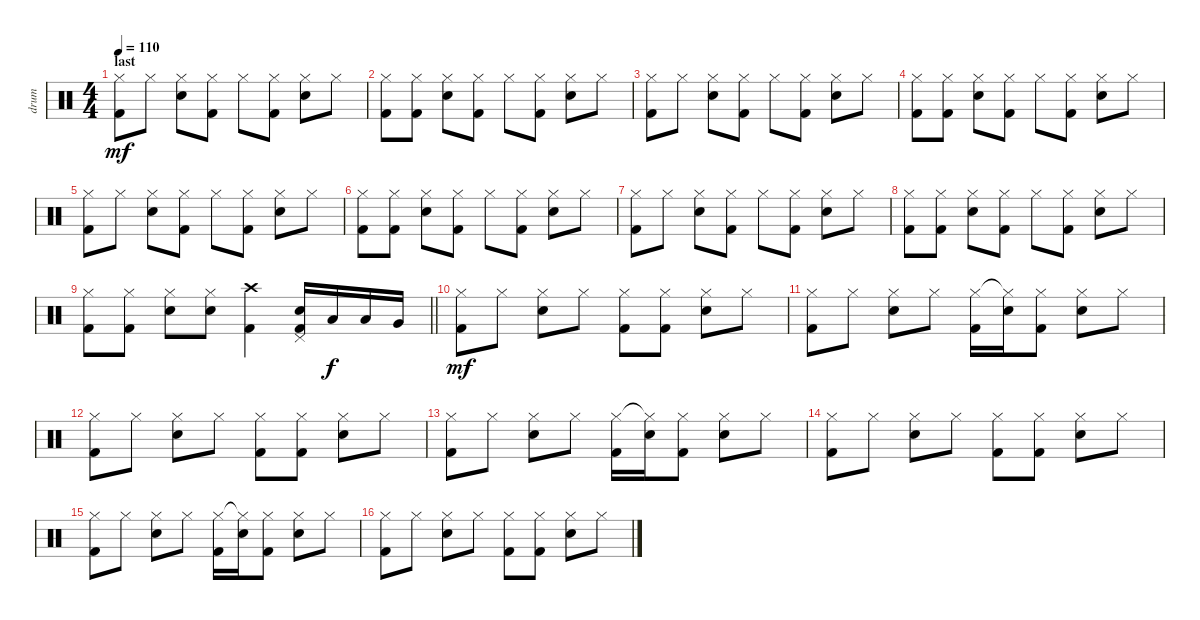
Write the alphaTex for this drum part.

\track ("drum" "drum") {instrument percussion}
\staff
\articulation defaults
\ts (4 4)
\section ("" "last")
\tempo 110
\clef neutral
\ks c
("Hi-Hat (closed)" "Kick (hit) 2").8{dy mf} "Hi-Hat (closed)".8 ("Hi-Hat (closed)" "Electric Snare (hit)").8 ("Hi-Hat (closed)" "Kick (hit) 2").8 "Hi-Hat (closed)".8 ("Hi-Hat (closed)" "Kick (hit) 2").8 ("Hi-Hat (closed)" "Electric Snare (hit)").8 "Hi-Hat (closed)".8 |
("Hi-Hat (closed)" "Kick (hit) 2").8 ("Hi-Hat (closed)" "Kick (hit) 2").8 ("Hi-Hat (closed)" "Electric Snare (hit)").8 ("Hi-Hat (closed)" "Kick (hit) 2").8 "Hi-Hat (closed)".8 ("Hi-Hat (closed)" "Kick (hit) 2").8 ("Hi-Hat (closed)" "Electric Snare (hit)").8 "Hi-Hat (closed)".8 |
("Hi-Hat (closed)" "Kick (hit) 2").8 "Hi-Hat (closed)".8 ("Hi-Hat (closed)" "Electric Snare (hit)").8 ("Hi-Hat (closed)" "Kick (hit) 2").8 "Hi-Hat (closed)".8 ("Hi-Hat (closed)" "Kick (hit) 2").8 ("Hi-Hat (closed)" "Electric Snare (hit)").8 "Hi-Hat (closed)".8 |
("Hi-Hat (closed)" "Kick (hit) 2").8 ("Hi-Hat (closed)" "Kick (hit) 2").8 ("Hi-Hat (closed)" "Electric Snare (hit)").8 ("Hi-Hat (closed)" "Kick (hit) 2").8 "Hi-Hat (closed)".8 ("Hi-Hat (closed)" "Kick (hit) 2").8 ("Hi-Hat (closed)" "Electric Snare (hit)").8 "Hi-Hat (closed)".8 |
("Hi-Hat (closed)" "Kick (hit) 2").8 "Hi-Hat (closed)".8 ("Hi-Hat (closed)" "Electric Snare (hit)").8 ("Hi-Hat (closed)" "Kick (hit) 2").8 "Hi-Hat (closed)".8 ("Hi-Hat (closed)" "Kick (hit) 2").8 ("Hi-Hat (closed)" "Electric Snare (hit)").8 "Hi-Hat (closed)".8 |
("Hi-Hat (closed)" "Kick (hit) 2").8 ("Hi-Hat (closed)" "Kick (hit) 2").8 ("Hi-Hat (closed)" "Electric Snare (hit)").8 ("Hi-Hat (closed)" "Kick (hit) 2").8 "Hi-Hat (closed)".8 ("Hi-Hat (closed)" "Kick (hit) 2").8 ("Hi-Hat (closed)" "Electric Snare (hit)").8 "Hi-Hat (closed)".8 |
("Hi-Hat (closed)" "Kick (hit) 2").8 "Hi-Hat (closed)".8 ("Hi-Hat (closed)" "Electric Snare (hit)").8 ("Hi-Hat (closed)" "Kick (hit) 2").8 "Hi-Hat (closed)".8 ("Hi-Hat (closed)" "Kick (hit) 2").8 ("Hi-Hat (closed)" "Electric Snare (hit)").8 "Hi-Hat (closed)".8 |
("Hi-Hat (closed)" "Kick (hit) 2").8 ("Hi-Hat (closed)" "Kick (hit) 2").8 ("Hi-Hat (closed)" "Electric Snare (hit)").8 ("Hi-Hat (closed)" "Kick (hit) 2").8 "Hi-Hat (closed)".8 ("Hi-Hat (closed)" "Kick (hit) 2").8 ("Hi-Hat (closed)" "Electric Snare (hit)").8 "Hi-Hat (closed)".8 |
\barLineRight lightlight
("Hi-Hat (closed)" "Kick (hit) 2").8 ("Hi-Hat (closed)" "Kick (hit) 2").8 ("Hi-Hat (closed)" "Electric Snare (hit)").8 ("Hi-Hat (closed)" "Electric Snare (hit)").8 ("Crash high (hit)" "Kick (hit) 2").4 ("Pedal Hi-Hat (hit)" "Electric Snare (hit)" "Kick (hit) 2").16 "Low Floor Tom (hit)".16{dy f} "Low Tom (hit)".16 "Very Low Tom (hit)".16 |
("Hi-Hat (closed)" "Kick (hit) 2").8{dy mf} "Hi-Hat (closed)".8 ("Hi-Hat (closed)" "Electric Snare (hit)").8 "Hi-Hat (closed)".8 ("Hi-Hat (closed)" "Kick (hit) 2").8 ("Hi-Hat (closed)" "Kick (hit) 2").8 ("Hi-Hat (closed)" "Electric Snare (hit)").8 "Hi-Hat (closed)".8 |
("Hi-Hat (closed)" "Kick (hit) 2").8 "Hi-Hat (closed)".8 ("Hi-Hat (closed)" "Electric Snare (hit)").8 "Hi-Hat (closed)".8 ("Hi-Hat (closed)" "Kick (hit) 2").16 ("Hi-Hat (closed)"{t} "Electric Snare (hit)").16 ("Hi-Hat (closed)" "Kick (hit) 2").8 ("Hi-Hat (closed)" "Electric Snare (hit)").8 "Hi-Hat (closed)".8 |
("Hi-Hat (closed)" "Kick (hit) 2").8 "Hi-Hat (closed)".8 ("Hi-Hat (closed)" "Electric Snare (hit)").8 "Hi-Hat (closed)".8 ("Hi-Hat (closed)" "Kick (hit) 2").8 ("Hi-Hat (closed)" "Kick (hit) 2").8 ("Hi-Hat (closed)" "Electric Snare (hit)").8 "Hi-Hat (closed)".8 |
("Hi-Hat (closed)" "Kick (hit) 2").8 "Hi-Hat (closed)".8 ("Hi-Hat (closed)" "Electric Snare (hit)").8 "Hi-Hat (closed)".8 ("Hi-Hat (closed)" "Kick (hit) 2").16 ("Hi-Hat (closed)"{t} "Electric Snare (hit)").16 ("Hi-Hat (closed)" "Kick (hit) 2").8 ("Hi-Hat (closed)" "Electric Snare (hit)").8 "Hi-Hat (closed)".8 |
("Hi-Hat (closed)" "Kick (hit) 2").8 "Hi-Hat (closed)".8 ("Hi-Hat (closed)" "Electric Snare (hit)").8 "Hi-Hat (closed)".8 ("Hi-Hat (closed)" "Kick (hit) 2").8 ("Hi-Hat (closed)" "Kick (hit) 2").8 ("Hi-Hat (closed)" "Electric Snare (hit)").8 "Hi-Hat (closed)".8 |
("Hi-Hat (closed)" "Kick (hit) 2").8 "Hi-Hat (closed)".8 ("Hi-Hat (closed)" "Electric Snare (hit)").8 "Hi-Hat (closed)".8 ("Hi-Hat (closed)" "Kick (hit) 2").16 ("Hi-Hat (closed)"{t} "Electric Snare (hit)").16 ("Hi-Hat (closed)" "Kick (hit) 2").8 ("Hi-Hat (closed)" "Electric Snare (hit)").8 "Hi-Hat (closed)".8 |
("Hi-Hat (closed)" "Kick (hit) 2").8 "Hi-Hat (closed)".8 ("Hi-Hat (closed)" "Electric Snare (hit)").8 "Hi-Hat (closed)".8 ("Hi-Hat (closed)" "Kick (hit) 2").8 ("Hi-Hat (closed)" "Kick (hit) 2").8 ("Hi-Hat (closed)" "Electric Snare (hit)").8 "Hi-Hat (closed)".8
